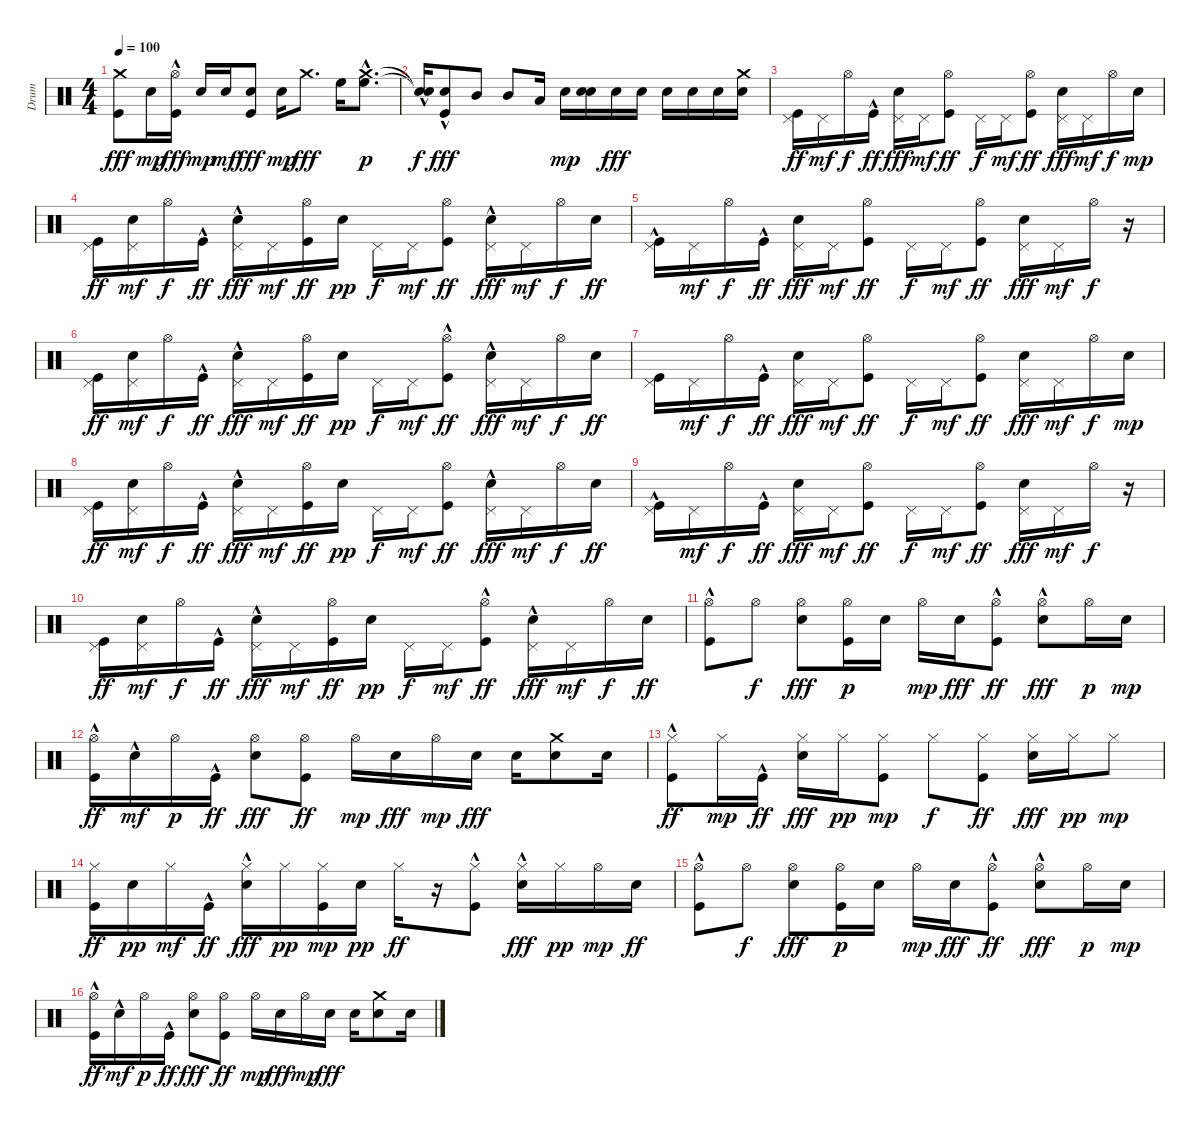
\track ("Drum" "Drum") {instrument percussion}
\staff {score}
\articulation defaults
\ts (4 4)
\tempo 100
\clef neutral
\ks c
("Crash medium (hit)" "Kick (hit)").8{dy fff} "Electric Snare (hit)".16{dy mp} ("Hi-Hat (open)" "Kick (hit)"{hac}).16{dy fff} "Electric Snare (hit)".16{dy mp} "Electric Snare (hit)".16{dy mf} ("Electric Snare (hit)" "Kick (hit)").8{dy fff} "Electric Snare (hit)".16{dy mp} "Crash medium (hit)".8{d dy fff} "High Floor Tom (hit)".16 ("High Floor Tom (hit)"{hac} "Crash medium (hit)"{hac}).8{d dy p} |
("Snare (hit)"{t} "Snare (hit)"{hac t}).16{dy f} ("Electric Snare (hit)"{hac} "Kick (hit)"{hac}).8{dy fff} "Mid Tom (hit)".8 "Mid Tom (hit)".8 "Low Floor Tom (hit)".16 "Electric Snare (hit)".16{dy mp} ("Electric Snare (hit)" "Electric Snare (hit)").16 "Electric Snare (hit)".16{dy fff} "Electric Snare (hit)".16 "Electric Snare (hit)".16 "Electric Snare (hit)".16 "Electric Snare (hit)".16 ("Crash medium (hit)" "Electric Snare (hit)").16 |
("Kick (hit)" "Pedal Hi-Hat (hit)").16{dy ff} "Pedal Hi-Hat (hit)".16{dy mf} "Hi-Hat (open)".16{dy f} "Kick (hit)"{hac}.16{dy ff} ("Electric Snare (hit)" "Pedal Hi-Hat (hit)").16{dy fff} "Pedal Hi-Hat (hit)".16{dy mf} ("Kick (hit)" "Hi-Hat (open)").8{dy ff} "Pedal Hi-Hat (hit)".16{dy f} "Pedal Hi-Hat (hit)".16{dy mf} ("Kick (hit)" "Hi-Hat (open)").8{dy ff} ("Electric Snare (hit)" "Pedal Hi-Hat (hit)").16{dy fff} "Pedal Hi-Hat (hit)".16{dy mf} "Hi-Hat (open)".16{dy f} "Electric Snare (hit)".16{dy mp} |
("Pedal Hi-Hat (hit)" "Kick (hit)").16{dy ff} ("Electric Snare (hit)" "Pedal Hi-Hat (hit)").16{dy mf} "Hi-Hat (open)".16{dy f} "Kick (hit)"{hac}.16{dy ff} ("Electric Snare (hit)"{hac} "Pedal Hi-Hat (hit)").16{dy fff} "Pedal Hi-Hat (hit)".16{dy mf} ("Kick (hit)" "Hi-Hat (open)").16{dy ff} "Electric Snare (hit)".16{dy pp} "Pedal Hi-Hat (hit)".16{dy f} "Pedal Hi-Hat (hit)".16{dy mf} ("Hi-Hat (open)" "Kick (hit)").8{dy ff} ("Electric Snare (hit)"{hac} "Pedal Hi-Hat (hit)").16{dy fff} "Pedal Hi-Hat (hit)".16{dy mf} "Hi-Hat (open)".16{dy f} "Electric Snare (hit)".16{dy ff} |
("Kick (hit)"{hac} "Pedal Hi-Hat (hit)").16 "Pedal Hi-Hat (hit)".16{dy mf} "Hi-Hat (open)".16{dy f} "Kick (hit)"{hac}.16{dy ff} ("Electric Snare (hit)" "Pedal Hi-Hat (hit)").16{dy fff} "Pedal Hi-Hat (hit)".16{dy mf} ("Kick (hit)" "Hi-Hat (open)").8{dy ff} "Pedal Hi-Hat (hit)".16{dy f} "Pedal Hi-Hat (hit)".16{dy mf} ("Hi-Hat (open)" "Kick (hit)").8{dy ff} ("Electric Snare (hit)" "Pedal Hi-Hat (hit)").16{dy fff} "Pedal Hi-Hat (hit)".16{dy mf} "Hi-Hat (open)".16{dy f} r.16 |
("Pedal Hi-Hat (hit)" "Kick (hit)").16{dy ff} ("Electric Snare (hit)" "Pedal Hi-Hat (hit)").16{dy mf} "Hi-Hat (open)".16{dy f} "Kick (hit)"{hac}.16{dy ff} ("Electric Snare (hit)"{hac} "Pedal Hi-Hat (hit)").16{dy fff} "Pedal Hi-Hat (hit)".16{dy mf} ("Kick (hit)" "Hi-Hat (open)").16{dy ff} "Electric Snare (hit)".16{dy pp} "Pedal Hi-Hat (hit)".16{dy f} "Pedal Hi-Hat (hit)".16{dy mf} ("Hi-Hat (open)" "Kick (hit)"{hac}).8{dy ff} ("Electric Snare (hit)"{hac} "Pedal Hi-Hat (hit)").16{dy fff} "Pedal Hi-Hat (hit)".16{dy mf} "Hi-Hat (open)".16{dy f} "Electric Snare (hit)".16{dy ff} |
("Kick (hit)" "Pedal Hi-Hat (hit)").16 "Pedal Hi-Hat (hit)".16{dy mf} "Hi-Hat (open)".16{dy f} "Kick (hit)"{hac}.16{dy ff} ("Electric Snare (hit)" "Pedal Hi-Hat (hit)").16{dy fff} "Pedal Hi-Hat (hit)".16{dy mf} ("Kick (hit)" "Hi-Hat (open)").8{dy ff} "Pedal Hi-Hat (hit)".16{dy f} "Pedal Hi-Hat (hit)".16{dy mf} ("Kick (hit)" "Hi-Hat (open)").8{dy ff} ("Electric Snare (hit)" "Pedal Hi-Hat (hit)").16{dy fff} "Pedal Hi-Hat (hit)".16{dy mf} "Hi-Hat (open)".16{dy f} "Electric Snare (hit)".16{dy mp} |
("Pedal Hi-Hat (hit)" "Kick (hit)").16{dy ff} ("Electric Snare (hit)" "Pedal Hi-Hat (hit)").16{dy mf} "Hi-Hat (open)".16{dy f} "Kick (hit)"{hac}.16{dy ff} ("Electric Snare (hit)"{hac} "Pedal Hi-Hat (hit)").16{dy fff} "Pedal Hi-Hat (hit)".16{dy mf} ("Kick (hit)" "Hi-Hat (open)").16{dy ff} "Electric Snare (hit)".16{dy pp} "Pedal Hi-Hat (hit)".16{dy f} "Pedal Hi-Hat (hit)".16{dy mf} ("Hi-Hat (open)" "Kick (hit)").8{dy ff} ("Electric Snare (hit)"{hac} "Pedal Hi-Hat (hit)").16{dy fff} "Pedal Hi-Hat (hit)".16{dy mf} "Hi-Hat (open)".16{dy f} "Electric Snare (hit)".16{dy ff} |
("Kick (hit)"{hac} "Pedal Hi-Hat (hit)").16 "Pedal Hi-Hat (hit)".16{dy mf} "Hi-Hat (open)".16{dy f} "Kick (hit)"{hac}.16{dy ff} ("Electric Snare (hit)" "Pedal Hi-Hat (hit)").16{dy fff} "Pedal Hi-Hat (hit)".16{dy mf} ("Kick (hit)" "Hi-Hat (open)").8{dy ff} "Pedal Hi-Hat (hit)".16{dy f} "Pedal Hi-Hat (hit)".16{dy mf} ("Hi-Hat (open)" "Kick (hit)").8{dy ff} ("Electric Snare (hit)" "Pedal Hi-Hat (hit)").16{dy fff} "Pedal Hi-Hat (hit)".16{dy mf} "Hi-Hat (open)".16{dy f} r.16 |
("Pedal Hi-Hat (hit)" "Kick (hit)").16{dy ff} ("Electric Snare (hit)" "Pedal Hi-Hat (hit)").16{dy mf} "Hi-Hat (open)".16{dy f} "Kick (hit)"{hac}.16{dy ff} ("Electric Snare (hit)"{hac} "Pedal Hi-Hat (hit)").16{dy fff} "Pedal Hi-Hat (hit)".16{dy mf} ("Kick (hit)" "Hi-Hat (open)").16{dy ff} "Electric Snare (hit)".16{dy pp} "Pedal Hi-Hat (hit)".16{dy f} "Pedal Hi-Hat (hit)".16{dy mf} ("Hi-Hat (open)" "Kick (hit)"{hac}).8{dy ff} ("Electric Snare (hit)"{hac} "Pedal Hi-Hat (hit)").16{dy fff} "Pedal Hi-Hat (hit)".16{dy mf} "Hi-Hat (open)".16{dy f} "Electric Snare (hit)".16{dy ff} |
("Hi-Hat (open)" "Kick (hit)"{hac}).8 "Hi-Hat (open)".8{dy f} ("Hi-Hat (open)" "Electric Snare (hit)").8{dy fff} ("Kick (hit)" "Hi-Hat (open)").16{dy p} "Electric Snare (hit)".16 "Hi-Hat (open)".16{dy mp} "Electric Snare (hit)".16{dy fff} ("Hi-Hat (open)" "Kick (hit)"{hac}).8{dy ff} ("Hi-Hat (open)" "Electric Snare (hit)"{hac}).8{dy fff} "Hi-Hat (open)".16{dy p} "Electric Snare (hit)".16{dy mp} |
("Hi-Hat (open)" "Kick (hit)"{hac}).16{dy ff} "Electric Snare (hit)"{hac}.16{dy mf} "Hi-Hat (open)".16{dy p} "Kick (hit)"{hac}.16{dy ff} ("Electric Snare (hit)" "Hi-Hat (open)").8{dy fff} ("Hi-Hat (open)" "Kick (hit)").8{dy ff} "Hi-Hat (open)".16{dy mp} "Electric Snare (hit)".16{dy fff} "Hi-Hat (open)".16{dy mp} "Electric Snare (hit)".16{dy fff} "Electric Snare (hit)".16 ("Electric Snare (hit)" "Crash medium (hit)").8 "Electric Snare (hit)".16 |
("Kick (hit)"{hac} "Hi-Hat (closed)").8{dy ff} "Hi-Hat (closed)".16{dy mp} "Kick (hit)"{hac}.16{dy ff} ("Hi-Hat (closed)" "Electric Snare (hit)").16{dy fff} "Hi-Hat (closed)".16{dy pp} ("Kick (hit)" "Hi-Hat (closed)").8{dy mp} "Hi-Hat (closed)".8{dy f} ("Hi-Hat (closed)" "Kick (hit)").8{dy ff} ("Hi-Hat (closed)" "Electric Snare (hit)").16{dy fff} "Hi-Hat (closed)".16{dy pp} "Hi-Hat (closed)".8{dy mp} |
("Hi-Hat (closed)" "Kick (hit)").16{dy ff} "Electric Snare (hit)".16{dy pp} "Hi-Hat (closed)".16{dy mf} "Kick (hit)"{hac}.16{dy ff} ("Electric Snare (hit)"{hac} "Hi-Hat (closed)").16{dy fff} "Hi-Hat (closed)".16{dy pp} ("Kick (hit)" "Hi-Hat (closed)").16{dy mp} "Electric Snare (hit)".16{dy pp} "Hi-Hat (closed)".16{dy ff} r.16 ("Hi-Hat (closed)" "Kick (hit)"{hac}).8 ("Electric Snare (hit)"{hac} "Hi-Hat (closed)").16{dy fff} "Hi-Hat (closed)".16{dy pp} "Hi-Hat (open)".16{dy mp} "Electric Snare (hit)".16{dy ff} |
("Hi-Hat (open)" "Kick (hit)"{hac}).8 "Hi-Hat (open)".8{dy f} ("Hi-Hat (open)" "Electric Snare (hit)").8{dy fff} ("Kick (hit)" "Hi-Hat (open)").16{dy p} "Electric Snare (hit)".16 "Hi-Hat (open)".16{dy mp} "Electric Snare (hit)".16{dy fff} ("Hi-Hat (open)" "Kick (hit)"{hac}).8{dy ff} ("Hi-Hat (open)" "Electric Snare (hit)"{hac}).8{dy fff} "Hi-Hat (open)".16{dy p} "Electric Snare (hit)".16{dy mp} |
("Hi-Hat (open)" "Kick (hit)"{hac}).16{dy ff} "Electric Snare (hit)"{hac}.16{dy mf} "Hi-Hat (open)".16{dy p} "Kick (hit)"{hac}.16{dy ff} ("Electric Snare (hit)" "Hi-Hat (open)").8{dy fff} ("Hi-Hat (open)" "Kick (hit)").8{dy ff} "Hi-Hat (open)".16{dy mp} "Electric Snare (hit)".16{dy fff} "Hi-Hat (open)".16{dy mp} "Electric Snare (hit)".16{dy fff} "Electric Snare (hit)".16 ("Electric Snare (hit)" "Crash medium (hit)").8 "Electric Snare (hit)".16
